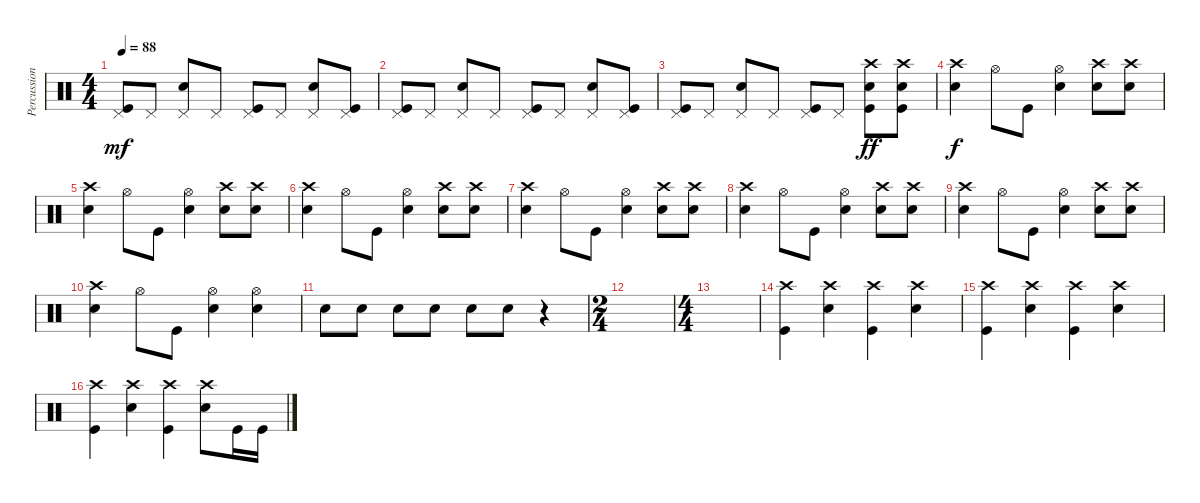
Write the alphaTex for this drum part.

\track ("Percussion" "Percussion") {instrument percussion}
\staff {score}
\articulation defaults
\ts (4 4)
\tempo 88
\clef neutral
\ks c
("Kick (hit)" "Pedal Hi-Hat (hit)").8{dy mf} "Pedal Hi-Hat (hit)".8 ("Snare (hit) 2" "Pedal Hi-Hat (hit)").8 "Pedal Hi-Hat (hit)".8 ("Kick (hit)" "Pedal Hi-Hat (hit)").8 "Pedal Hi-Hat (hit)".8 ("Snare (hit) 2" "Pedal Hi-Hat (hit)").8 ("Kick (hit)" "Pedal Hi-Hat (hit)").8 |
("Kick (hit)" "Pedal Hi-Hat (hit)").8 "Pedal Hi-Hat (hit)".8 ("Snare (hit) 2" "Pedal Hi-Hat (hit)").8 "Pedal Hi-Hat (hit)".8 ("Kick (hit)" "Pedal Hi-Hat (hit)").8 "Pedal Hi-Hat (hit)".8 ("Snare (hit) 2" "Pedal Hi-Hat (hit)").8 ("Kick (hit)" "Pedal Hi-Hat (hit)").8 |
("Kick (hit)" "Pedal Hi-Hat (hit)").8 "Pedal Hi-Hat (hit)".8 ("Snare (hit) 2" "Pedal Hi-Hat (hit)").8 "Pedal Hi-Hat (hit)".8 ("Kick (hit)" "Pedal Hi-Hat (hit)").8 "Pedal Hi-Hat (hit)".8 ("Kick (hit)" "Snare (hit) 2" "Crash high (hit)").8{dy ff} ("Kick (hit)" "Snare (hit) 2" "Crash high (hit)").8 |
("Snare (hit) 2" "Crash high (hit)").4{dy f} "Hi-Hat (open)".8 "Kick (hit)".8 ("Snare (hit) 2" "Hi-Hat (open)").4 ("Snare (hit) 2" "Crash high (hit)").8 ("Snare (hit) 2" "Crash high (hit)").8 |
("Snare (hit) 2" "Crash high (hit)").4 "Hi-Hat (open)".8 "Kick (hit)".8 ("Snare (hit) 2" "Hi-Hat (open)").4 ("Snare (hit) 2" "Crash high (hit)").8 ("Snare (hit) 2" "Crash high (hit)").8 |
("Snare (hit) 2" "Crash high (hit)").4 "Hi-Hat (open)".8 "Kick (hit)".8 ("Snare (hit) 2" "Hi-Hat (open)").4 ("Snare (hit) 2" "Crash high (hit)").8 ("Snare (hit) 2" "Crash high (hit)").8 |
("Snare (hit) 2" "Crash high (hit)").4 "Hi-Hat (open)".8 "Kick (hit)".8 ("Snare (hit) 2" "Hi-Hat (open)").4 ("Snare (hit) 2" "Crash high (hit)").8 ("Snare (hit) 2" "Crash high (hit)").8 |
("Snare (hit) 2" "Crash high (hit)").4 "Hi-Hat (open)".8 "Kick (hit)".8 ("Snare (hit) 2" "Hi-Hat (open)").4 ("Snare (hit) 2" "Crash high (hit)").8 ("Snare (hit) 2" "Crash high (hit)").8 |
("Snare (hit) 2" "Crash high (hit)").4 "Hi-Hat (open)".8 "Kick (hit)".8 ("Snare (hit) 2" "Hi-Hat (open)").4 ("Snare (hit) 2" "Crash high (hit)").8 ("Snare (hit) 2" "Crash high (hit)").8 |
("Snare (hit) 2" "Crash high (hit)").4 "Hi-Hat (open)".8 "Kick (hit)".8 ("Snare (hit) 2" "Hi-Hat (open)").4 ("Snare (hit) 2" "Hi-Hat (open)").4 |
"Snare (hit) 2".8 "Snare (hit) 2".8 "Snare (hit) 2".8 "Snare (hit) 2".8 "Snare (hit) 2".8 "Snare (hit) 2".8 r.4 |
\ts (2 4)
|
\ts (4 4)
|
("Kick (hit)" "Crash high (hit)").4 ("Snare (hit) 2" "Crash high (hit)").4 ("Kick (hit)" "Crash high (hit)").4 ("Snare (hit) 2" "Crash high (hit)").4 |
("Kick (hit)" "Crash high (hit)").4 ("Snare (hit) 2" "Crash high (hit)").4 ("Kick (hit)" "Crash high (hit)").4 ("Snare (hit) 2" "Crash high (hit)").4 |
("Kick (hit)" "Crash high (hit)").4 ("Snare (hit) 2" "Crash high (hit)").4 ("Kick (hit)" "Crash high (hit)").4 ("Snare (hit) 2" "Crash high (hit)").8 "Kick (hit)".16 "Kick (hit)".16
